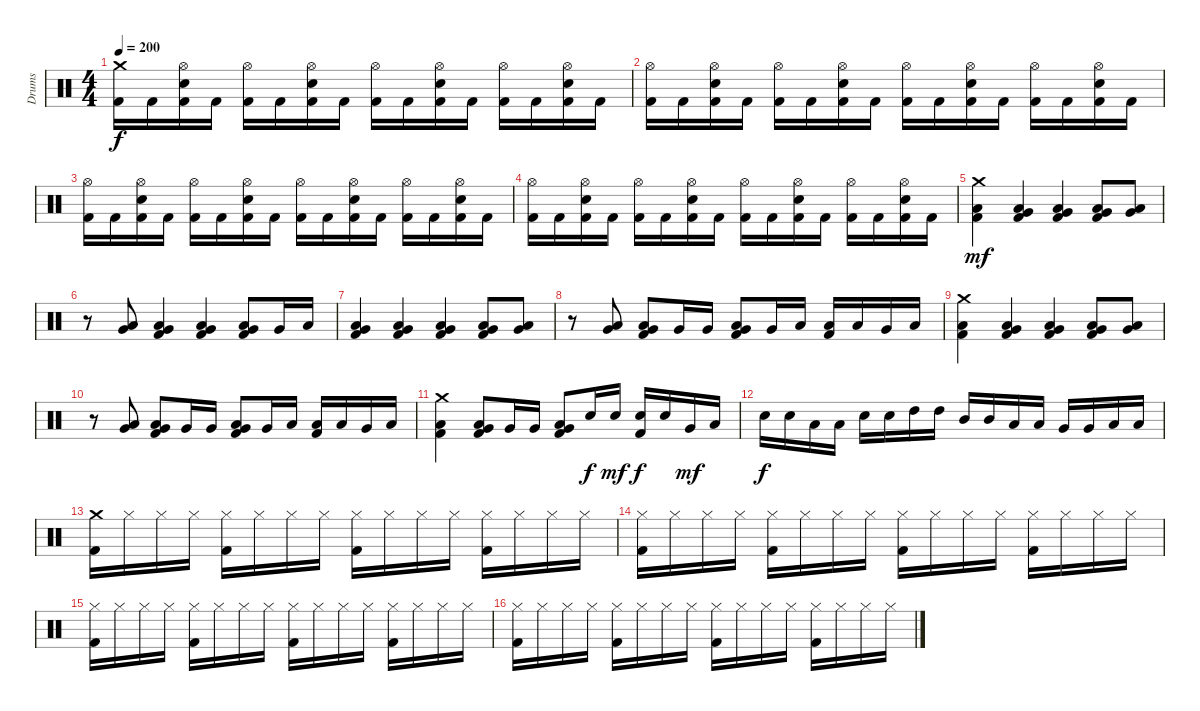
\track ("Drums" "Drums") {instrument percussion}
\staff {score}
\articulation defaults
\ts (4 4)
\tempo 200
\clef neutral
\ks c
("Crash medium (hit)" "Kick (hit) 2").16{dy f} "Kick (hit) 2".16 ("Hi-Hat (open)" "Snare (hit) 2" "Kick (hit) 2").16 "Kick (hit) 2".16 ("Hi-Hat (open)" "Kick (hit) 2").16 "Kick (hit) 2".16 ("Hi-Hat (open)" "Snare (hit) 2" "Kick (hit) 2").16 "Kick (hit) 2".16 ("Hi-Hat (open)" "Kick (hit) 2").16 "Kick (hit) 2".16 ("Hi-Hat (open)" "Snare (hit) 2" "Kick (hit) 2").16 "Kick (hit) 2".16 ("Hi-Hat (open)" "Kick (hit) 2").16 "Kick (hit) 2".16 ("Hi-Hat (open)" "Snare (hit) 2" "Kick (hit) 2").16 "Kick (hit) 2".16 |
("Hi-Hat (open)" "Kick (hit) 2").16 "Kick (hit) 2".16 ("Hi-Hat (open)" "Snare (hit) 2" "Kick (hit) 2").16 "Kick (hit) 2".16 ("Hi-Hat (open)" "Kick (hit) 2").16 "Kick (hit) 2".16 ("Hi-Hat (open)" "Snare (hit) 2" "Kick (hit) 2").16 "Kick (hit) 2".16 ("Hi-Hat (open)" "Kick (hit) 2").16 "Kick (hit) 2".16 ("Hi-Hat (open)" "Snare (hit) 2" "Kick (hit) 2").16 "Kick (hit) 2".16 ("Hi-Hat (open)" "Kick (hit) 2").16 "Kick (hit) 2".16 ("Hi-Hat (open)" "Snare (hit) 2" "Kick (hit) 2").16 "Kick (hit) 2".16 |
("Hi-Hat (open)" "Kick (hit) 2").16 "Kick (hit) 2".16 ("Hi-Hat (open)" "Snare (hit) 2" "Kick (hit) 2").16 "Kick (hit) 2".16 ("Hi-Hat (open)" "Kick (hit) 2").16 "Kick (hit) 2".16 ("Hi-Hat (open)" "Snare (hit) 2" "Kick (hit) 2").16 "Kick (hit) 2".16 ("Hi-Hat (open)" "Kick (hit) 2").16 "Kick (hit) 2".16 ("Hi-Hat (open)" "Snare (hit) 2" "Kick (hit) 2").16 "Kick (hit) 2".16 ("Hi-Hat (open)" "Kick (hit) 2").16 "Kick (hit) 2".16 ("Hi-Hat (open)" "Snare (hit) 2" "Kick (hit) 2").16 "Kick (hit) 2".16 |
("Hi-Hat (open)" "Kick (hit) 2").16 "Kick (hit) 2".16 ("Hi-Hat (open)" "Snare (hit) 2" "Kick (hit) 2").16 "Kick (hit) 2".16 ("Hi-Hat (open)" "Kick (hit) 2").16 "Kick (hit) 2".16 ("Hi-Hat (open)" "Snare (hit) 2" "Kick (hit) 2").16 "Kick (hit) 2".16 ("Hi-Hat (open)" "Kick (hit) 2").16 "Kick (hit) 2".16 ("Hi-Hat (open)" "Snare (hit) 2" "Kick (hit) 2").16 "Kick (hit) 2".16 ("Hi-Hat (open)" "Kick (hit) 2").16 "Kick (hit) 2".16 ("Hi-Hat (open)" "Snare (hit) 2" "Kick (hit) 2").16 "Kick (hit) 2".16 |
("Crash medium (hit)" "Low Floor Tom (hit)" "Kick (hit) 2").4{dy mf} ("Very Low Tom (hit)" "Low Floor Tom (hit)" "Kick (hit) 2").4 ("Very Low Tom (hit)" "Low Floor Tom (hit)" "Kick (hit) 2").4 ("Very Low Tom (hit)" "Low Floor Tom (hit)" "Kick (hit) 2").8 ("Very Low Tom (hit)" "Low Floor Tom (hit)").8 |
r.8 ("Very Low Tom (hit)" "Low Floor Tom (hit)").8 ("Very Low Tom (hit)" "Low Floor Tom (hit)" "Kick (hit) 2").4 ("Very Low Tom (hit)" "Low Floor Tom (hit)" "Kick (hit) 2").4 ("Very Low Tom (hit)" "Low Floor Tom (hit)" "Kick (hit) 2").8 "Very Low Tom (hit)".16 "Low Floor Tom (hit)".16 |
("Very Low Tom (hit)" "Low Floor Tom (hit)" "Kick (hit) 2").4 ("Very Low Tom (hit)" "Low Floor Tom (hit)" "Kick (hit) 2").4 ("Very Low Tom (hit)" "Low Floor Tom (hit)" "Kick (hit) 2").4 ("Very Low Tom (hit)" "Low Floor Tom (hit)" "Kick (hit) 2").8 ("Very Low Tom (hit)" "Low Floor Tom (hit)").8 |
r.8 ("Very Low Tom (hit)" "Low Floor Tom (hit)").8 ("Very Low Tom (hit)" "Low Floor Tom (hit)" "Kick (hit) 2").8 "Very Low Tom (hit)".16 "Very Low Tom (hit)".16 ("Very Low Tom (hit)" "Low Floor Tom (hit)" "Kick (hit) 2").8 "Very Low Tom (hit)".16 "Low Floor Tom (hit)".16 ("Low Tom (hit)" "Kick (hit) 2").16 "Low Tom (hit)".16 "Very Low Tom (hit)".16 "Low Floor Tom (hit)".16 |
("Crash medium (hit)" "Low Floor Tom (hit)" "Kick (hit) 2").4 ("Very Low Tom (hit)" "Low Floor Tom (hit)" "Kick (hit) 2").4 ("Very Low Tom (hit)" "Low Floor Tom (hit)" "Kick (hit) 2").4 ("Very Low Tom (hit)" "Low Floor Tom (hit)" "Kick (hit) 2").8 ("Very Low Tom (hit)" "Low Floor Tom (hit)").8 |
r.8 ("Very Low Tom (hit)" "Low Floor Tom (hit)").8 ("Very Low Tom (hit)" "Low Floor Tom (hit)" "Kick (hit) 2").8 "Very Low Tom (hit)".16 "Very Low Tom (hit)".16 ("Very Low Tom (hit)" "Low Floor Tom (hit)" "Kick (hit) 2").8 "Very Low Tom (hit)".16 "Low Floor Tom (hit)".16 ("Low Tom (hit)" "Kick (hit) 2").16 "Low Tom (hit)".16 "Very Low Tom (hit)".16 "Low Floor Tom (hit)".16 |
("Crash medium (hit)" "Low Floor Tom (hit)" "Kick (hit) 2").4 ("Very Low Tom (hit)" "Low Floor Tom (hit)" "Kick (hit) 2").8 "Very Low Tom (hit)".16 "Very Low Tom (hit)".16 ("Very Low Tom (hit)" "Low Floor Tom (hit)" "Kick (hit) 2").8 "Snare (hit) 2".16{dy f} "Snare (hit) 2".16{dy mf} ("Snare (hit) 2" "Kick (hit) 2").16{dy f} "Snare (hit) 2".16 "Very Low Tom (hit)".16{dy mf} "Low Floor Tom (hit)".16 |
"Snare (hit) 2".16{dy f} "Snare (hit) 2".16 "Low Tom (hit)".16 "Low Tom (hit)".16 "Snare (hit) 2".16 "Snare (hit) 2".16 "High Tom (hit)".16 "High Tom (hit)".16 "Mid Tom (hit)".16 "Mid Tom (hit)".16 "Low Tom (hit)".16 "Low Tom (hit)".16 "Very Low Tom (hit)".16 "Very Low Tom (hit)".16 "Low Floor Tom (hit)".16 "Low Floor Tom (hit)".16 |
("Crash medium (hit)" "Kick (hit) 2").16 "Hi-Hat (closed)".16 "Hi-Hat (closed)".16 "Hi-Hat (closed)".16 ("Hi-Hat (closed)" "Kick (hit) 2").16 "Hi-Hat (closed)".16 "Hi-Hat (closed)".16 "Hi-Hat (closed)".16 ("Hi-Hat (closed)" "Kick (hit) 2").16 "Hi-Hat (closed)".16 "Hi-Hat (closed)".16 "Hi-Hat (closed)".16 ("Hi-Hat (closed)" "Kick (hit) 2").16 "Hi-Hat (closed)".16 "Hi-Hat (closed)".16 "Hi-Hat (closed)".16 |
("Hi-Hat (closed)" "Kick (hit) 2").16 "Hi-Hat (closed)".16 "Hi-Hat (closed)".16 "Hi-Hat (closed)".16 ("Hi-Hat (closed)" "Kick (hit) 2").16 "Hi-Hat (closed)".16 "Hi-Hat (closed)".16 "Hi-Hat (closed)".16 ("Hi-Hat (closed)" "Kick (hit) 2").16 "Hi-Hat (closed)".16 "Hi-Hat (closed)".16 "Hi-Hat (closed)".16 ("Hi-Hat (closed)" "Kick (hit) 2").16 "Hi-Hat (closed)".16 "Hi-Hat (closed)".16 "Hi-Hat (closed)".16 |
("Hi-Hat (closed)" "Kick (hit) 2").16 "Hi-Hat (closed)".16 "Hi-Hat (closed)".16 "Hi-Hat (closed)".16 ("Hi-Hat (closed)" "Kick (hit) 2").16 "Hi-Hat (closed)".16 "Hi-Hat (closed)".16 "Hi-Hat (closed)".16 ("Hi-Hat (closed)" "Kick (hit) 2").16 "Hi-Hat (closed)".16 "Hi-Hat (closed)".16 "Hi-Hat (closed)".16 ("Hi-Hat (closed)" "Kick (hit) 2").16 "Hi-Hat (closed)".16 "Hi-Hat (closed)".16 "Hi-Hat (closed)".16 |
("Hi-Hat (closed)" "Kick (hit) 2").16 "Hi-Hat (closed)".16 "Hi-Hat (closed)".16 "Hi-Hat (closed)".16 ("Hi-Hat (closed)" "Kick (hit) 2").16 "Hi-Hat (closed)".16 "Hi-Hat (closed)".16 "Hi-Hat (closed)".16 ("Hi-Hat (closed)" "Kick (hit) 2").16 "Hi-Hat (closed)".16 "Hi-Hat (closed)".16 "Hi-Hat (closed)".16 ("Hi-Hat (closed)" "Kick (hit) 2").16 "Hi-Hat (closed)".16 "Hi-Hat (closed)".16 "Hi-Hat (closed)".16
